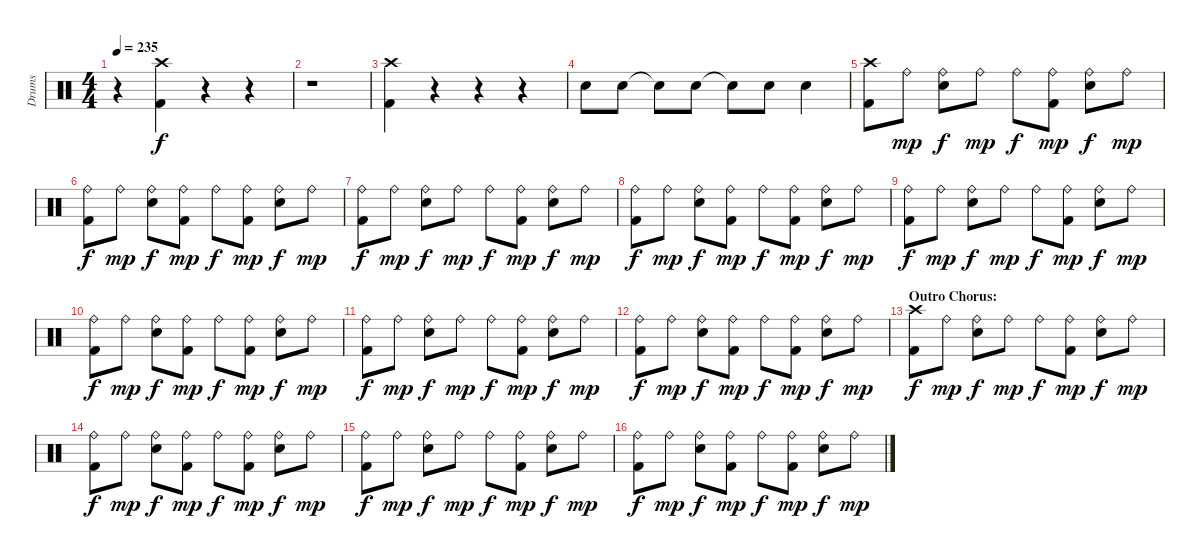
\track ("Drums" "Drums") {instrument percussion}
\staff {score}
\articulation defaults
\ts (4 4)
\tempo 235
\clef neutral
\ks c
r.4{dy f} ("Crash high (hit)" "Kick (hit) 2").4 r.4 r.4 |
r.1 |
("Crash high (hit)" "Kick (hit) 2").4 r.4 r.4 r.4 |
"Snare (hit) 2".8 "Snare (hit) 2".8 "Snare (hit)"{t}.8 "Snare (hit) 2".8 "Snare (hit)"{t}.8 "Snare (hit) 2".8 "Snare (hit) 2".4 |
("Crash high (hit)" "Kick (hit) 2").8 "Ride (bell)".8{dy mp} ("Ride (bell)" "Snare (hit) 2").8{dy f} "Ride (bell)".8{dy mp} "Ride (bell)".8{dy f} ("Ride (bell)" "Kick (hit) 2").8{dy mp} ("Ride (bell)" "Snare (hit) 2").8{dy f} "Ride (bell)".8{dy mp} |
("Ride (bell)" "Kick (hit) 2").8{dy f} "Ride (bell)".8{dy mp} ("Ride (bell)" "Snare (hit) 2").8{dy f} ("Ride (bell)" "Kick (hit) 2").8{dy mp} "Ride (bell)".8{dy f} ("Ride (bell)" "Kick (hit) 2").8{dy mp} ("Ride (bell)" "Snare (hit) 2").8{dy f} "Ride (bell)".8{dy mp} |
("Ride (bell)" "Kick (hit) 2").8{dy f} "Ride (bell)".8{dy mp} ("Ride (bell)" "Snare (hit) 2").8{dy f} "Ride (bell)".8{dy mp} "Ride (bell)".8{dy f} ("Ride (bell)" "Kick (hit) 2").8{dy mp} ("Ride (bell)" "Snare (hit) 2").8{dy f} "Ride (bell)".8{dy mp} |
("Ride (bell)" "Kick (hit) 2").8{dy f} "Ride (bell)".8{dy mp} ("Ride (bell)" "Snare (hit) 2").8{dy f} ("Ride (bell)" "Kick (hit) 2").8{dy mp} "Ride (bell)".8{dy f} ("Ride (bell)" "Kick (hit) 2").8{dy mp} ("Ride (bell)" "Snare (hit) 2").8{dy f} "Ride (bell)".8{dy mp} |
("Ride (bell)" "Kick (hit) 2").8{dy f} "Ride (bell)".8{dy mp} ("Ride (bell)" "Snare (hit) 2").8{dy f} "Ride (bell)".8{dy mp} "Ride (bell)".8{dy f} ("Ride (bell)" "Kick (hit) 2").8{dy mp} ("Ride (bell)" "Snare (hit) 2").8{dy f} "Ride (bell)".8{dy mp} |
("Ride (bell)" "Kick (hit) 2").8{dy f} "Ride (bell)".8{dy mp} ("Ride (bell)" "Snare (hit) 2").8{dy f} ("Ride (bell)" "Kick (hit) 2").8{dy mp} "Ride (bell)".8{dy f} ("Ride (bell)" "Kick (hit) 2").8{dy mp} ("Ride (bell)" "Snare (hit) 2").8{dy f} "Ride (bell)".8{dy mp} |
("Ride (bell)" "Kick (hit) 2").8{dy f} "Ride (bell)".8{dy mp} ("Ride (bell)" "Snare (hit) 2").8{dy f} "Ride (bell)".8{dy mp} "Ride (bell)".8{dy f} ("Ride (bell)" "Kick (hit) 2").8{dy mp} ("Ride (bell)" "Snare (hit) 2").8{dy f} "Ride (bell)".8{dy mp} |
("Ride (bell)" "Kick (hit) 2").8{dy f} "Ride (bell)".8{dy mp} ("Ride (bell)" "Snare (hit) 2").8{dy f} ("Ride (bell)" "Kick (hit) 2").8{dy mp} "Ride (bell)".8{dy f} ("Ride (bell)" "Kick (hit) 2").8{dy mp} ("Ride (bell)" "Snare (hit) 2").8{dy f} "Ride (bell)".8{dy mp} |
\section ("" "Outro Chorus:")
("Crash high (hit)" "Kick (hit) 2").8{dy f} "Ride (bell)".8{dy mp} ("Ride (bell)" "Snare (hit) 2").8{dy f} "Ride (bell)".8{dy mp} "Ride (bell)".8{dy f} ("Ride (bell)" "Kick (hit) 2").8{dy mp} ("Ride (bell)" "Snare (hit) 2").8{dy f} "Ride (bell)".8{dy mp} |
("Ride (bell)" "Kick (hit) 2").8{dy f} "Ride (bell)".8{dy mp} ("Ride (bell)" "Snare (hit) 2").8{dy f} ("Ride (bell)" "Kick (hit) 2").8{dy mp} "Ride (bell)".8{dy f} ("Ride (bell)" "Kick (hit) 2").8{dy mp} ("Ride (bell)" "Snare (hit) 2").8{dy f} "Ride (bell)".8{dy mp} |
("Ride (bell)" "Kick (hit) 2").8{dy f} "Ride (bell)".8{dy mp} ("Ride (bell)" "Snare (hit) 2").8{dy f} "Ride (bell)".8{dy mp} "Ride (bell)".8{dy f} ("Ride (bell)" "Kick (hit) 2").8{dy mp} ("Ride (bell)" "Snare (hit) 2").8{dy f} "Ride (bell)".8{dy mp} |
("Ride (bell)" "Kick (hit) 2").8{dy f} "Ride (bell)".8{dy mp} ("Ride (bell)" "Snare (hit) 2").8{dy f} ("Ride (bell)" "Kick (hit) 2").8{dy mp} "Ride (bell)".8{dy f} ("Ride (bell)" "Kick (hit) 2").8{dy mp} ("Ride (bell)" "Snare (hit) 2").8{dy f} "Ride (bell)".8{dy mp}
